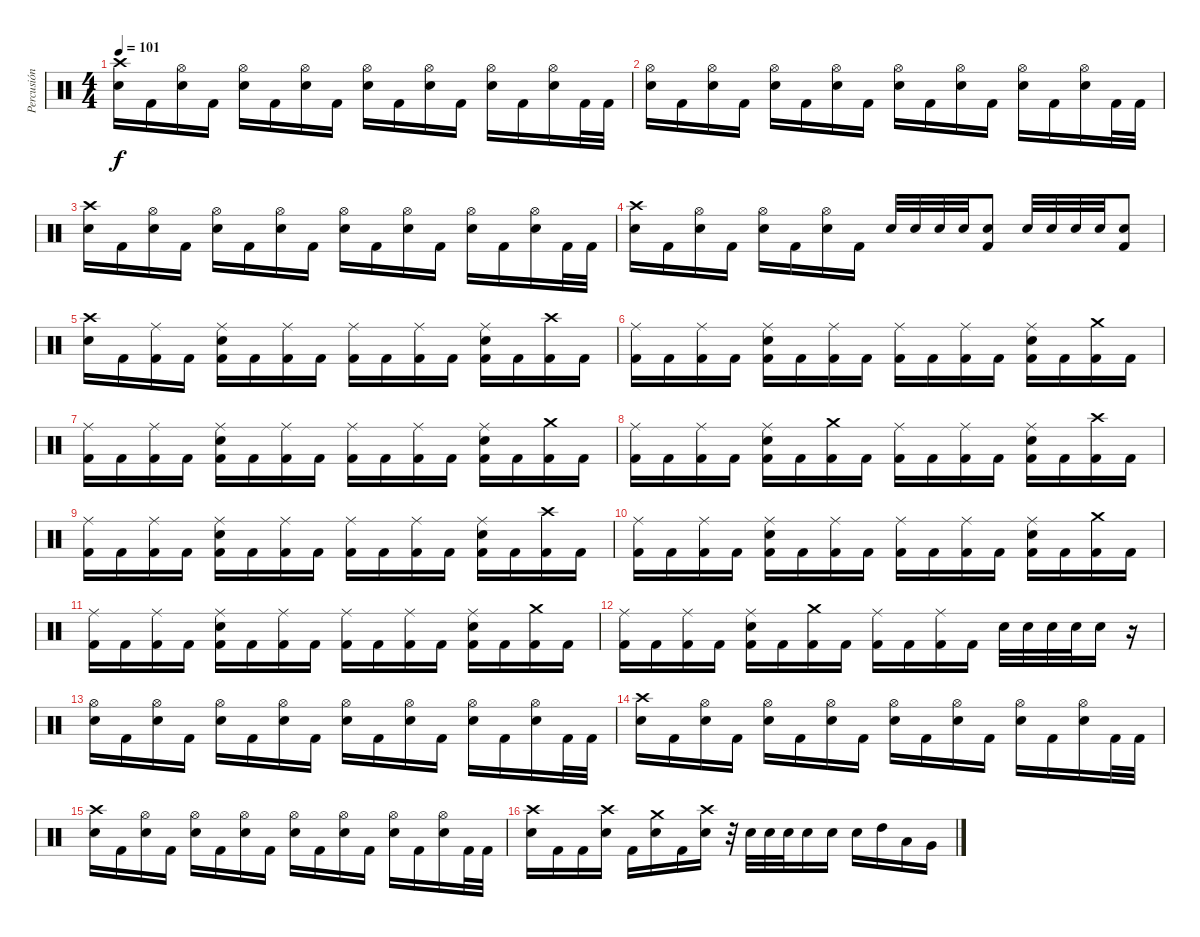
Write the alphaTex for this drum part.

\track ("Percusión" "Percusión") {instrument percussion}
\staff {score}
\articulation defaults
\ts (4 4)
\tempo 101
\clef neutral
\ks c
("Electric Snare (hit)" "Crash high (hit)").16{dy f} "Kick (hit) 2".16 ("Hi-Hat (open)" "Electric Snare (hit)").16 "Kick (hit) 2".16 ("Hi-Hat (open)" "Electric Snare (hit)").16 "Kick (hit) 2".16 ("Hi-Hat (open)" "Electric Snare (hit)").16 "Kick (hit) 2".16 ("Hi-Hat (open)" "Electric Snare (hit)").16 "Kick (hit) 2".16 ("Hi-Hat (open)" "Electric Snare (hit)").16 "Kick (hit) 2".16 ("Hi-Hat (open)" "Electric Snare (hit)").16 "Kick (hit) 2".16 ("Hi-Hat (open)" "Electric Snare (hit)").16 "Kick (hit) 2".32 "Kick (hit) 2".32 |
("Hi-Hat (open)" "Electric Snare (hit)").16 "Kick (hit) 2".16 ("Hi-Hat (open)" "Electric Snare (hit)").16 "Kick (hit) 2".16 ("Hi-Hat (open)" "Electric Snare (hit)").16 "Kick (hit) 2".16 ("Hi-Hat (open)" "Electric Snare (hit)").16 "Kick (hit) 2".16 ("Hi-Hat (open)" "Electric Snare (hit)").16 "Kick (hit) 2".16 ("Hi-Hat (open)" "Electric Snare (hit)").16 "Kick (hit) 2".16 ("Hi-Hat (open)" "Electric Snare (hit)").16 "Kick (hit) 2".16 ("Hi-Hat (open)" "Electric Snare (hit)").16 "Kick (hit) 2".32 "Kick (hit) 2".32 |
("Electric Snare (hit)" "Crash high (hit)").16 "Kick (hit) 2".16 ("Hi-Hat (open)" "Electric Snare (hit)").16 "Kick (hit) 2".16 ("Hi-Hat (open)" "Electric Snare (hit)").16 "Kick (hit) 2".16 ("Hi-Hat (open)" "Electric Snare (hit)").16 "Kick (hit) 2".16 ("Hi-Hat (open)" "Electric Snare (hit)").16 "Kick (hit) 2".16 ("Hi-Hat (open)" "Electric Snare (hit)").16 "Kick (hit) 2".16 ("Hi-Hat (open)" "Electric Snare (hit)").16 "Kick (hit) 2".16 ("Hi-Hat (open)" "Electric Snare (hit)").16 "Kick (hit) 2".32 "Kick (hit) 2".32 |
("Electric Snare (hit)" "Crash high (hit)").16 "Kick (hit) 2".16 ("Hi-Hat (open)" "Electric Snare (hit)").16 "Kick (hit) 2".16 ("Hi-Hat (open)" "Electric Snare (hit)").16 "Kick (hit) 2".16 ("Hi-Hat (open)" "Electric Snare (hit)").16 "Kick (hit) 2".16 "Electric Snare (hit)".32 "Electric Snare (hit)".32 "Electric Snare (hit)".32 "Electric Snare (hit)".32 ("Electric Snare (hit)" "Kick (hit) 2").8 "Electric Snare (hit)".32 "Electric Snare (hit)".32 "Electric Snare (hit)".32 "Electric Snare (hit)".32 ("Electric Snare (hit)" "Kick (hit) 2").8 |
("Crash high (hit)" "Electric Snare (hit)").16 "Kick (hit) 2".16 ("Ride (middle)" "Kick (hit) 2").16 "Kick (hit) 2".16 ("Ride (middle)" "Electric Snare (hit)" "Kick (hit) 2").16 "Kick (hit) 2".16 ("Ride (middle)" "Kick (hit) 2").16 "Kick (hit) 2".16 ("Ride (middle)" "Kick (hit) 2").16 "Kick (hit) 2".16 ("Ride (middle)" "Kick (hit) 2").16 "Kick (hit) 2".16 ("Ride (middle)" "Electric Snare (hit)" "Kick (hit) 2").16 "Kick (hit) 2".16 ("Crash high (hit)" "Kick (hit) 2").16 "Kick (hit) 2".16 |
("Ride (middle)" "Kick (hit) 2").16 "Kick (hit) 2".16 ("Ride (middle)" "Kick (hit) 2").16 "Kick (hit) 2".16 ("Ride (middle)" "Electric Snare (hit)" "Kick (hit) 2").16 "Kick (hit) 2".16 ("Ride (middle)" "Kick (hit) 2").16 "Kick (hit) 2".16 ("Ride (middle)" "Kick (hit) 2").16 "Kick (hit) 2".16 ("Ride (middle)" "Kick (hit) 2").16 "Kick (hit) 2".16 ("Ride (middle)" "Electric Snare (hit)" "Kick (hit) 2").16 "Kick (hit) 2".16 ("Crash medium (hit)" "Kick (hit) 2").16 "Kick (hit) 2".16 |
("Ride (middle)" "Kick (hit) 2").16 "Kick (hit) 2".16 ("Ride (middle)" "Kick (hit) 2").16 "Kick (hit) 2".16 ("Ride (middle)" "Electric Snare (hit)" "Kick (hit) 2").16 "Kick (hit) 2".16 ("Ride (middle)" "Kick (hit) 2").16 "Kick (hit) 2".16 ("Ride (middle)" "Kick (hit) 2").16 "Kick (hit) 2".16 ("Ride (middle)" "Kick (hit) 2").16 "Kick (hit) 2".16 ("Ride (middle)" "Electric Snare (hit)" "Kick (hit) 2").16 "Kick (hit) 2".16 ("Crash medium (hit)" "Kick (hit) 2").16 "Kick (hit) 2".16 |
("Ride (middle)" "Kick (hit) 2").16 "Kick (hit) 2".16 ("Ride (middle)" "Kick (hit) 2").16 "Kick (hit) 2".16 ("Electric Snare (hit)" "Ride (middle)" "Kick (hit) 2").16 "Kick (hit) 2".16 ("Crash medium (hit)" "Kick (hit) 2").16 "Kick (hit) 2".16 ("Ride (middle)" "Kick (hit) 2").16 "Kick (hit) 2".16 ("Ride (middle)" "Kick (hit) 2").16 "Kick (hit) 2".16 ("Electric Snare (hit)" "Ride (middle)" "Kick (hit) 2").16 "Kick (hit) 2".16 ("Crash high (hit)" "Kick (hit) 2").16 "Kick (hit) 2".16 |
("Ride (middle)" "Kick (hit) 2").16 "Kick (hit) 2".16 ("Ride (middle)" "Kick (hit) 2").16 "Kick (hit) 2".16 ("Ride (middle)" "Electric Snare (hit)" "Kick (hit) 2").16 "Kick (hit) 2".16 ("Ride (middle)" "Kick (hit) 2").16 "Kick (hit) 2".16 ("Ride (middle)" "Kick (hit) 2").16 "Kick (hit) 2".16 ("Ride (middle)" "Kick (hit) 2").16 "Kick (hit) 2".16 ("Ride (middle)" "Electric Snare (hit)" "Kick (hit) 2").16 "Kick (hit) 2".16 ("Crash high (hit)" "Kick (hit) 2").16 "Kick (hit) 2".16 |
("Ride (middle)" "Kick (hit) 2").16 "Kick (hit) 2".16 ("Ride (middle)" "Kick (hit) 2").16 "Kick (hit) 2".16 ("Ride (middle)" "Electric Snare (hit)" "Kick (hit) 2").16 "Kick (hit) 2".16 ("Ride (middle)" "Kick (hit) 2").16 "Kick (hit) 2".16 ("Ride (middle)" "Kick (hit) 2").16 "Kick (hit) 2".16 ("Ride (middle)" "Kick (hit) 2").16 "Kick (hit) 2".16 ("Ride (middle)" "Electric Snare (hit)" "Kick (hit) 2").16 "Kick (hit) 2".16 ("Crash medium (hit)" "Kick (hit) 2").16 "Kick (hit) 2".16 |
("Ride (middle)" "Kick (hit) 2").16 "Kick (hit) 2".16 ("Ride (middle)" "Kick (hit) 2").16 "Kick (hit) 2".16 ("Ride (middle)" "Electric Snare (hit)" "Kick (hit) 2").16 "Kick (hit) 2".16 ("Ride (middle)" "Kick (hit) 2").16 "Kick (hit) 2".16 ("Ride (middle)" "Kick (hit) 2").16 "Kick (hit) 2".16 ("Ride (middle)" "Kick (hit) 2").16 "Kick (hit) 2".16 ("Ride (middle)" "Electric Snare (hit)" "Kick (hit) 2").16 "Kick (hit) 2".16 ("Crash medium (hit)" "Kick (hit) 2").16 "Kick (hit) 2".16 |
("Ride (middle)" "Kick (hit) 2").16 "Kick (hit) 2".16 ("Ride (middle)" "Kick (hit) 2").16 "Kick (hit) 2".16 ("Electric Snare (hit)" "Ride (middle)" "Kick (hit) 2").16 "Kick (hit) 2".16 ("Crash medium (hit)" "Kick (hit) 2").16 "Kick (hit) 2".16 ("Ride (middle)" "Kick (hit) 2").16 "Kick (hit) 2".16 ("Ride (middle)" "Kick (hit) 2").16 "Kick (hit) 2".16 "Electric Snare (hit)".32 "Electric Snare (hit)".32 "Electric Snare (hit)".32 "Electric Snare (hit)".32 "Electric Snare (hit)".16 r.16 |
("Hi-Hat (open)" "Electric Snare (hit)").16 "Kick (hit) 2".16 ("Hi-Hat (open)" "Electric Snare (hit)").16 "Kick (hit) 2".16 ("Hi-Hat (open)" "Electric Snare (hit)").16 "Kick (hit) 2".16 ("Hi-Hat (open)" "Electric Snare (hit)").16 "Kick (hit) 2".16 ("Hi-Hat (open)" "Electric Snare (hit)").16 "Kick (hit) 2".16 ("Hi-Hat (open)" "Electric Snare (hit)").16 "Kick (hit) 2".16 ("Hi-Hat (open)" "Electric Snare (hit)").16 "Kick (hit) 2".16 ("Hi-Hat (open)" "Electric Snare (hit)").16 "Kick (hit) 2".32 "Kick (hit) 2".32 |
("Crash high (hit)" "Electric Snare (hit)").16 "Kick (hit) 2".16 ("Hi-Hat (open)" "Electric Snare (hit)").16 "Kick (hit) 2".16 ("Hi-Hat (open)" "Electric Snare (hit)").16 "Kick (hit) 2".16 ("Hi-Hat (open)" "Electric Snare (hit)").16 "Kick (hit) 2".16 ("Hi-Hat (open)" "Electric Snare (hit)").16 "Kick (hit) 2".16 ("Hi-Hat (open)" "Electric Snare (hit)").16 "Kick (hit) 2".16 ("Hi-Hat (open)" "Electric Snare (hit)").16 "Kick (hit) 2".16 ("Hi-Hat (open)" "Electric Snare (hit)").16 "Kick (hit) 2".32 "Kick (hit) 2".32 |
("Crash high (hit)" "Electric Snare (hit)").16 "Kick (hit) 2".16 ("Hi-Hat (open)" "Electric Snare (hit)").16 "Kick (hit) 2".16 ("Hi-Hat (open)" "Electric Snare (hit)").16 "Kick (hit) 2".16 ("Hi-Hat (open)" "Electric Snare (hit)").16 "Kick (hit) 2".16 ("Hi-Hat (open)" "Electric Snare (hit)").16 "Kick (hit) 2".16 ("Hi-Hat (open)" "Electric Snare (hit)").16 "Kick (hit) 2".16 ("Hi-Hat (open)" "Electric Snare (hit)").16 "Kick (hit) 2".16 ("Hi-Hat (open)" "Electric Snare (hit)").16 "Kick (hit) 2".32 "Kick (hit) 2".32 |
("Crash high (hit)" "Electric Snare (hit)").16 "Kick (hit) 2".16 "Kick (hit) 2".16 ("Crash high (hit)" "Electric Snare (hit)").16 "Kick (hit) 2".16 ("Crash medium (hit)" "Electric Snare (hit)").16 "Kick (hit) 2".16 ("Crash high (hit)" "Electric Snare (hit)").16 r.32 "Electric Snare (hit)".32 "Electric Snare (hit)".32 "Electric Snare (hit)".32 "Electric Snare (hit)".16 "Electric Snare (hit)".16 "Electric Snare (hit)".16 "High Tom (hit)".16 "Low Tom (hit)".16 "Very Low Tom (hit)".16
